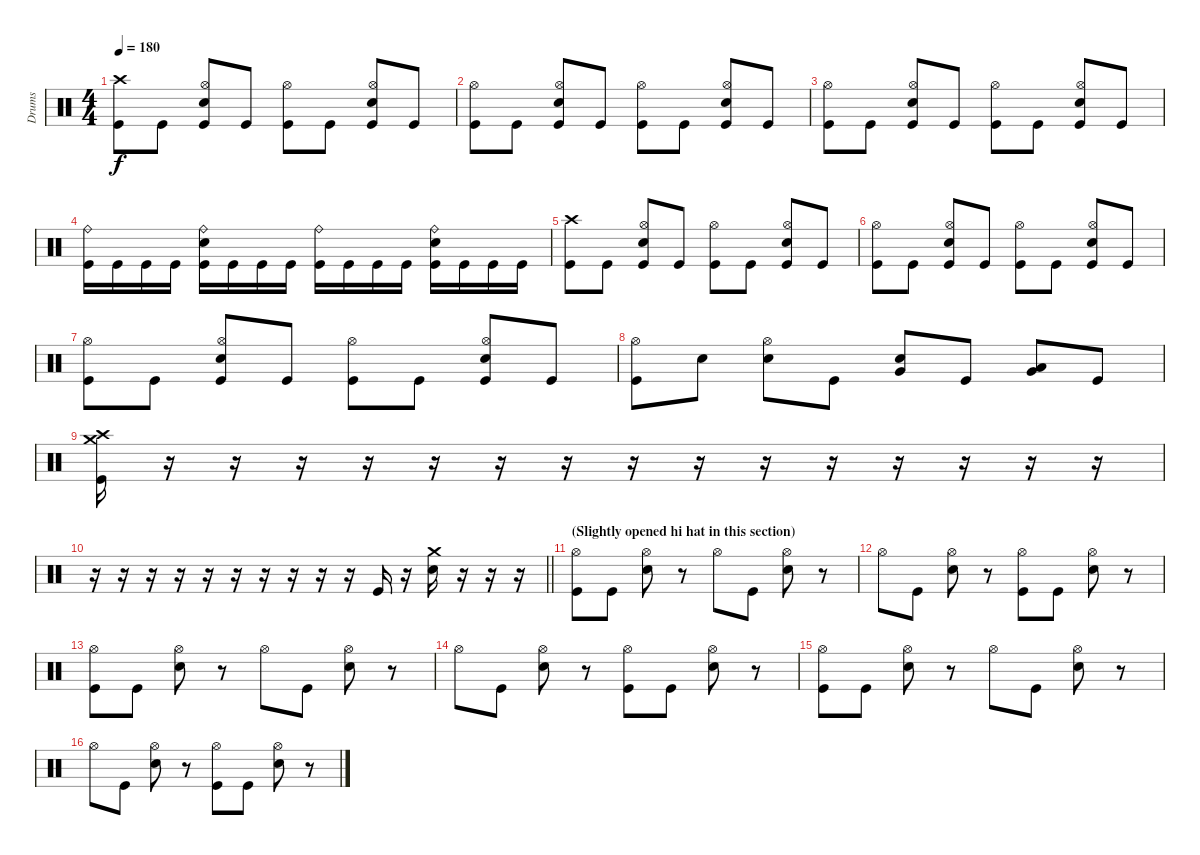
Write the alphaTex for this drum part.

\track ("Drums" "Drums") {instrument percussion}
\staff {score}
\articulation defaults
\ts (4 4)
\tempo 180
\clef neutral
\ks c
("Crash high (hit)" "Kick (hit)").8{dy f} "Kick (hit)".8 ("Kick (hit)" "Hi-Hat (open)" "Snare (hit) 2").8 "Kick (hit)".8 ("Kick (hit)" "Hi-Hat (open)").8 "Kick (hit)".8 ("Kick (hit)" "Hi-Hat (open)" "Snare (hit) 2").8 "Kick (hit)".8 |
("Hi-Hat (open)" "Kick (hit)").8 "Kick (hit)".8 ("Kick (hit)" "Hi-Hat (open)" "Snare (hit) 2").8 "Kick (hit)".8 ("Kick (hit)" "Hi-Hat (open)").8 "Kick (hit)".8 ("Kick (hit)" "Hi-Hat (open)" "Snare (hit) 2").8 "Kick (hit)".8 |
("Hi-Hat (open)" "Kick (hit)").8 "Kick (hit)".8 ("Kick (hit)" "Hi-Hat (open)" "Snare (hit) 2").8 "Kick (hit)".8 ("Kick (hit)" "Hi-Hat (open)").8 "Kick (hit)".8 ("Kick (hit)" "Hi-Hat (open)" "Snare (hit) 2").8 "Kick (hit)".8 |
("Ride (bell)" "Kick (hit)").16 "Kick (hit)".16 "Kick (hit)".16 "Kick (hit)".16 ("Kick (hit)" "Ride (bell)" "Snare (hit) 2").16 "Kick (hit)".16 "Kick (hit)".16 "Kick (hit)".16 ("Kick (hit)" "Ride (bell)").16 "Kick (hit)".16 "Kick (hit)".16 "Kick (hit)".16 ("Kick (hit)" "Ride (bell)" "Snare (hit) 2").16 "Kick (hit)".16 "Kick (hit)".16 "Kick (hit)".16 |
("Crash high (hit)" "Kick (hit)").8 "Kick (hit)".8 ("Kick (hit)" "Hi-Hat (open)" "Snare (hit) 2").8 "Kick (hit)".8 ("Kick (hit)" "Hi-Hat (open)").8 "Kick (hit)".8 ("Kick (hit)" "Hi-Hat (open)" "Snare (hit) 2").8 "Kick (hit)".8 |
("Hi-Hat (open)" "Kick (hit)").8 "Kick (hit)".8 ("Kick (hit)" "Hi-Hat (open)" "Snare (hit) 2").8 "Kick (hit)".8 ("Kick (hit)" "Hi-Hat (open)").8 "Kick (hit)".8 ("Kick (hit)" "Hi-Hat (open)" "Snare (hit) 2").8 "Kick (hit)".8 |
("Hi-Hat (open)" "Kick (hit)").8 "Kick (hit)".8 ("Kick (hit)" "Hi-Hat (open)" "Snare (hit) 2").8 "Kick (hit)".8 ("Kick (hit)" "Hi-Hat (open)").8 "Kick (hit)".8 ("Kick (hit)" "Hi-Hat (open)" "Snare (hit) 2").8 "Kick (hit)".8 |
("Hi-Hat (open)" "Kick (hit)").8 "Snare (hit) 2".8 ("Hi-Hat (open)" "Snare (hit) 2").8 "Kick (hit)".8 ("Very Low Tom (hit)" "Snare (hit) 2").8 "Kick (hit)".8 ("Very Low Tom (hit)" "Low Tom (hit)").8 "Kick (hit)".8 |
("Crash high (hit)" "Kick (hit)" "Crash medium (hit)").16 r.16 r.16 r.16 r.16 r.16 r.16 r.16 r.16 r.16 r.16 r.16 r.16 r.16 r.16 r.16 |
\barLineRight lightlight
r.16 r.16 r.16 r.16 r.16 r.16 r.16 r.16 r.16 r.16 "Kick (hit)".16 r.16 ("Snare (hit) 2" "Crash medium (hit)").16 r.16 r.16 r.16 |
\section ("" "(Slightly opened hi hat in this section)")
("Hi-Hat (open)" "Kick (hit)").8 "Kick (hit)".8 ("Hi-Hat (open)" "Snare (hit) 2").8 r.8 "Hi-Hat (open)".8 "Kick (hit)".8 ("Hi-Hat (open)" "Snare (hit) 2").8 r.8 |
"Hi-Hat (open)".8 "Kick (hit)".8 ("Hi-Hat (open)" "Snare (hit) 2").8 r.8 ("Hi-Hat (open)" "Kick (hit)").8 "Kick (hit)".8 ("Hi-Hat (open)" "Snare (hit) 2").8 r.8 |
("Hi-Hat (open)" "Kick (hit)").8 "Kick (hit)".8 ("Hi-Hat (open)" "Snare (hit) 2").8 r.8 "Hi-Hat (open)".8 "Kick (hit)".8 ("Hi-Hat (open)" "Snare (hit) 2").8 r.8 |
"Hi-Hat (open)".8 "Kick (hit)".8 ("Hi-Hat (open)" "Snare (hit) 2").8 r.8 ("Hi-Hat (open)" "Kick (hit)").8 "Kick (hit)".8 ("Hi-Hat (open)" "Snare (hit) 2").8 r.8 |
("Hi-Hat (open)" "Kick (hit)").8 "Kick (hit)".8 ("Hi-Hat (open)" "Snare (hit) 2").8 r.8 "Hi-Hat (open)".8 "Kick (hit)".8 ("Hi-Hat (open)" "Snare (hit) 2").8 r.8 |
"Hi-Hat (open)".8 "Kick (hit)".8 ("Hi-Hat (open)" "Snare (hit) 2").8 r.8 ("Hi-Hat (open)" "Kick (hit)").8 "Kick (hit)".8 ("Hi-Hat (open)" "Snare (hit) 2").8 r.8
